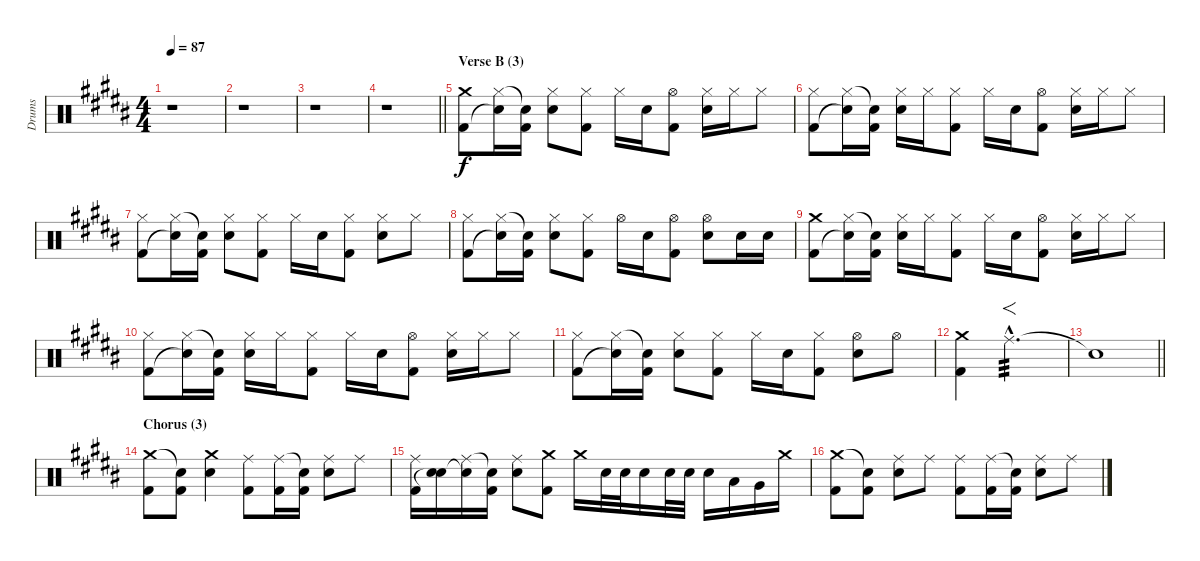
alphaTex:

\track ("Drums" "Drums") {instrument percussion}
\staff {score}
\articulation defaults
\ts (4 4)
\tempo 87
\clef neutral
\ks b
r.1{dy f} |
r.1 |
r.1 |
\barLineRight lightlight
r.1 |
\section ("" "Verse B (3)")
("Crash medium (hit)" "Kick (hit) 2").8 ("Hi-Hat (closed)" "Snare (hit)"{t}).16 ("Snare (hit)"{t} "Kick (hit) 2").16 ("Hi-Hat (closed)" "Electric Snare (hit)").8 ("Hi-Hat (closed)" "Kick (hit) 2").8 "Hi-Hat (closed)".16 "Electric Snare (hit)".16 ("Hi-Hat (open)" "Kick (hit) 2").8 ("Hi-Hat (closed)" "Electric Snare (hit)").16 "Hi-Hat (closed)".16 "Hi-Hat (closed)".8 |
("Hi-Hat (closed)" "Kick (hit) 2").8 ("Hi-Hat (closed)" "Snare (hit)"{t}).16 ("Snare (hit)"{t} "Kick (hit) 2").16 ("Hi-Hat (closed)" "Electric Snare (hit)").16 "Hi-Hat (closed)".16 ("Hi-Hat (closed)" "Kick (hit) 2").8 "Hi-Hat (closed)".16 "Electric Snare (hit)".16 ("Hi-Hat (open)" "Kick (hit) 2").8 ("Hi-Hat (closed)" "Electric Snare (hit)").16 "Hi-Hat (closed)".16 "Hi-Hat (closed)".8 |
("Hi-Hat (closed)" "Kick (hit) 2").8 ("Hi-Hat (closed)" "Snare (hit)"{t}).16 ("Snare (hit)"{t} "Kick (hit) 2").16 ("Hi-Hat (closed)" "Electric Snare (hit)").8 ("Hi-Hat (closed)" "Kick (hit) 2").8 "Hi-Hat (closed)".16 "Electric Snare (hit)".16 ("Hi-Hat (closed)" "Kick (hit) 2").8 ("Hi-Hat (closed)" "Electric Snare (hit)").8 "Hi-Hat (closed)".8 |
("Hi-Hat (closed)" "Kick (hit) 2").8 ("Hi-Hat (closed)" "Snare (hit)"{t}).16 ("Snare (hit)"{t} "Kick (hit) 2").16 ("Hi-Hat (closed)" "Electric Snare (hit)").8 ("Hi-Hat (closed)" "Kick (hit) 2").8 "Hi-Hat (open)".16 "Electric Snare (hit)".16 ("Hi-Hat (open)" "Kick (hit) 2").8 ("Hi-Hat (open)" "Electric Snare (hit)").8 "Electric Snare (hit)".16 "Electric Snare (hit)".16 |
("Crash medium (hit)" "Kick (hit) 2").8 ("Hi-Hat (closed)" "Snare (hit)"{t}).16 ("Snare (hit)"{t} "Kick (hit) 2").16 ("Hi-Hat (closed)" "Electric Snare (hit)").16 "Hi-Hat (closed)".16 ("Hi-Hat (closed)" "Kick (hit) 2").8 "Hi-Hat (closed)".16 "Electric Snare (hit)".16 ("Hi-Hat (open)" "Kick (hit) 2").8 ("Hi-Hat (closed)" "Electric Snare (hit)").16 "Hi-Hat (closed)".16 "Hi-Hat (closed)".8 |
("Hi-Hat (closed)" "Kick (hit) 2").8 ("Hi-Hat (closed)" "Snare (hit)"{t}).16 ("Snare (hit)"{t} "Kick (hit) 2").16 ("Hi-Hat (closed)" "Electric Snare (hit)").16 "Hi-Hat (closed)".16 ("Hi-Hat (closed)" "Kick (hit) 2").8 "Hi-Hat (closed)".16 "Electric Snare (hit)".16 ("Hi-Hat (open)" "Kick (hit) 2").8 ("Hi-Hat (closed)" "Electric Snare (hit)").16 "Hi-Hat (closed)".16 "Hi-Hat (closed)".8 |
("Hi-Hat (closed)" "Kick (hit) 2").8 ("Hi-Hat (closed)" "Snare (hit)"{t}).16 ("Snare (hit)"{t} "Kick (hit) 2").16 ("Hi-Hat (closed)" "Electric Snare (hit)").8 ("Hi-Hat (closed)" "Kick (hit) 2").8 "Hi-Hat (closed)".16 "Electric Snare (hit)".16 ("Hi-Hat (closed)" "Kick (hit) 2").8 ("Hi-Hat (open)" "Electric Snare (hit)").8 "Hi-Hat (open)".8 |
("Crash medium (hit)" "Kick (hit) 2").4 "Ride (middle)"{hac}.2{f d tp 3} |
\barLineRight lightlight "Snare (hit)"{t}.1
|
\section ("" "Chorus (3)")
("Crash medium (hit)" "Kick (hit) 2").8 ("Snare (hit)"{t} "Kick (hit) 2").8 ("Crash medium (hit)" "Electric Snare (hit)").4 ("Ride (middle)" "Kick (hit) 2").8 ("Ride (middle)" "Kick (hit) 2").16 ("Snare (hit)"{t} "Kick (hit) 2").16 ("Ride (middle)" "Electric Snare (hit)").8 "Ride (middle)".8 |
("Ride (middle)" "Kick (hit) 2").16 ("Electric Snare (hit)" "Snare (hit)"{t}).16 ("Ride (middle)" "Snare (hit)"{t}).16 ("Snare (hit)"{t} "Kick (hit) 2").16 ("Ride (middle)" "Electric Snare (hit)").8 ("Crash medium (hit)" "Kick (hit) 2").8 "Crash medium (hit)".16 "Electric Snare (hit)".32 "Electric Snare (hit)".32 "Electric Snare (hit)".16 "Electric Snare (hit)".32 "Electric Snare (hit)".32 "Electric Snare (hit)".16 "Low Tom (hit)".16 "Very Low Tom (hit)".16 "Crash medium (hit)".16 |
("Crash medium (hit)" "Kick (hit) 2").8 ("Snare (hit)"{t} "Kick (hit) 2").8 ("Ride (middle)" "Electric Snare (hit)").8 "Ride (middle)".8 ("Ride (middle)" "Kick (hit) 2").8 ("Ride (middle)" "Kick (hit) 2").16 ("Snare (hit)"{t} "Kick (hit) 2").16 ("Ride (middle)" "Electric Snare (hit)").8 "Ride (middle)".8
